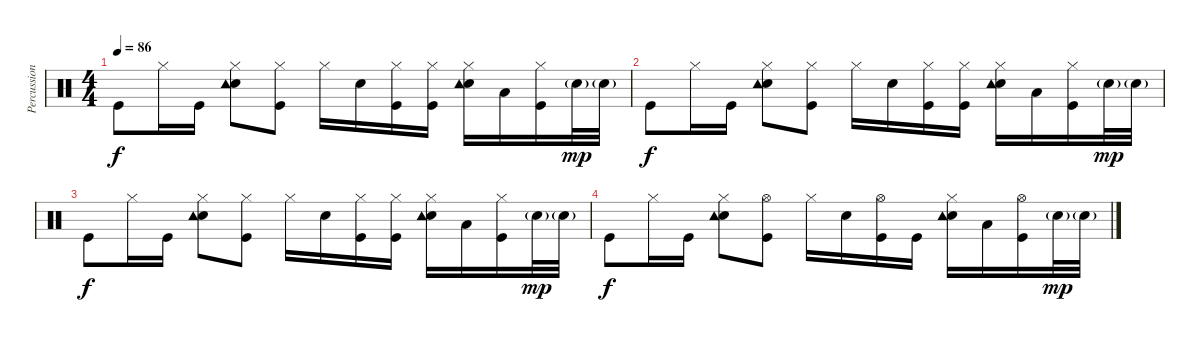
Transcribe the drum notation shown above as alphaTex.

\track ("Percussion" "Percussion") {instrument percussion}
\staff {score}
\articulation defaults
\ts (4 4)
\tempo 86
\clef neutral
\ks c "Kick (hit)".8{dy f} "Hi-Hat (closed)".16 "Kick (hit)".16
("Snare (hit) 2" "Hi-Hat (closed)" "Tambourine (hit)").8 ("Hi-Hat (closed)" "Kick (hit)").8 "Hi-Hat (closed)".16 "Snare (hit) 2".16 ("Kick (hit)" "Hi-Hat (closed)").16 ("Kick (hit)" "Hi-Hat (closed)").16 ("Snare (hit) 2" "Hi-Hat (closed)" "Tambourine (hit)").16 "Low Tom (hit)".16 ("Hi-Hat (closed)" "Kick (hit)").16 "Snare (hit) 2"{g}.32{dy mp} "Snare (hit) 2"{g}.32 |
"Kick (hit)".8{dy f} "Hi-Hat (closed)".16 "Kick (hit)".16 ("Snare (hit) 2" "Hi-Hat (closed)" "Tambourine (hit)").8 ("Hi-Hat (closed)" "Kick (hit)").8 "Hi-Hat (closed)".16 "Snare (hit) 2".16 ("Kick (hit)" "Hi-Hat (closed)").16 ("Kick (hit)" "Hi-Hat (closed)").16 ("Snare (hit) 2" "Hi-Hat (closed)" "Tambourine (hit)").16 "Low Tom (hit)".16 ("Hi-Hat (closed)" "Kick (hit)").16 "Snare (hit) 2"{g}.32{dy mp} "Snare (hit) 2"{g}.32 |
"Kick (hit)".8{dy f} "Hi-Hat (closed)".16 "Kick (hit)".16 ("Snare (hit) 2" "Hi-Hat (closed)" "Tambourine (hit)").8 ("Hi-Hat (closed)" "Kick (hit)").8 "Hi-Hat (closed)".16 "Snare (hit) 2".16 ("Kick (hit)" "Hi-Hat (closed)").16 ("Kick (hit)" "Hi-Hat (closed)").16 ("Snare (hit) 2" "Hi-Hat (closed)" "Tambourine (hit)").16 "Low Tom (hit)".16 ("Hi-Hat (closed)" "Kick (hit)").16 "Snare (hit) 2"{g}.32{dy mp} "Snare (hit) 2"{g}.32 |
"Kick (hit)".8{dy f} "Hi-Hat (closed)".16 "Kick (hit)".16 ("Snare (hit) 2" "Hi-Hat (closed)" "Tambourine (hit)").8 ("Hi-Hat (open)" "Kick (hit)").8 "Hi-Hat (closed)".16 "Snare (hit) 2".16 ("Kick (hit)" "Hi-Hat (open)").16 "Kick (hit)".16 ("Snare (hit) 2" "Tambourine (hit)" "Hi-Hat (closed)").16 "Low Tom (hit)".16 ("Hi-Hat (open)" "Kick (hit)").16 "Snare (hit) 2"{g}.32{dy mp} "Snare (hit) 2"{g}.32
